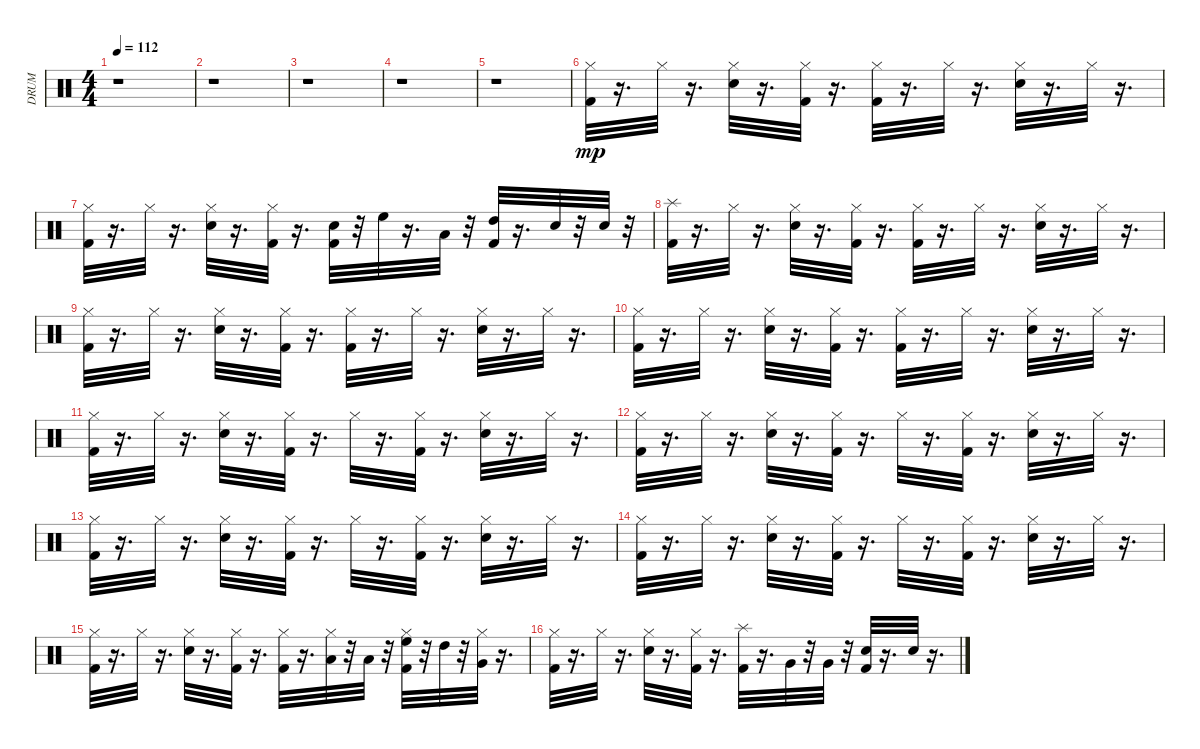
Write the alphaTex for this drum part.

\track ("DRUM" "DRUM") {instrument percussion}
\staff {score}
\articulation defaults
\ts (4 4)
\tempo 112
\clef neutral
\ks c
r.1{dy mp} |
r.1 |
r.1 |
r.1 |
r.1 |
("Kick (hit) 2" "Hi-Hat (closed)").32 r.16{d} "Hi-Hat (closed)".32 r.16{d} ("Hi-Hat (closed)" "Snare (hit) 2").32 r.16{d} ("Kick (hit) 2" "Hi-Hat (closed)").32 r.16{d} ("Kick (hit) 2" "Hi-Hat (closed)").32 r.16{d} "Hi-Hat (closed)".32 r.16{d} ("Hi-Hat (closed)" "Snare (hit) 2").32 r.16{d} "Hi-Hat (closed)".32 r.16{d} |
("Kick (hit) 2" "Hi-Hat (closed)").32 r.16{d} "Hi-Hat (closed)".32 r.16{d} ("Hi-Hat (closed)" "Snare (hit) 2").32 r.16{d} ("Kick (hit) 2" "Hi-Hat (closed)").32 r.16{d} ("Kick (hit) 2" "Snare (hit) 2").32 r.32 "High Floor Tom (hit)".32 r.16{d} "Low Floor Tom (hit)".32 r.32 ("Kick (hit) 2" "High Tom (hit)").32 r.16{d} "Snare (hit) 2".32 r.32 "Snare (hit) 2".32 r.32 |
("Kick (hit) 2" "Splash (hit)").32 r.16{d} "Hi-Hat (closed)".32 r.16{d} ("Hi-Hat (closed)" "Snare (hit) 2").32 r.16{d} ("Kick (hit) 2" "Hi-Hat (closed)").32 r.16{d} ("Kick (hit) 2" "Hi-Hat (closed)").32 r.16{d} "Hi-Hat (closed)".32 r.16{d} ("Hi-Hat (closed)" "Snare (hit) 2").32 r.16{d} "Hi-Hat (closed)".32 r.16{d} |
("Kick (hit) 2" "Hi-Hat (closed)").32 r.16{d} "Hi-Hat (closed)".32 r.16{d} ("Hi-Hat (closed)" "Snare (hit) 2").32 r.16{d} ("Kick (hit) 2" "Hi-Hat (closed)").32 r.16{d} ("Kick (hit) 2" "Hi-Hat (closed)").32 r.16{d} "Hi-Hat (closed)".32 r.16{d} ("Hi-Hat (closed)" "Snare (hit) 2").32 r.16{d} "Hi-Hat (closed)".32 r.16{d} |
("Kick (hit) 2" "Hi-Hat (closed)").32 r.16{d} "Hi-Hat (closed)".32 r.16{d} ("Hi-Hat (closed)" "Snare (hit) 2").32 r.16{d} ("Kick (hit) 2" "Hi-Hat (closed)").32 r.16{d} ("Kick (hit) 2" "Hi-Hat (closed)").32 r.16{d} "Hi-Hat (closed)".32 r.16{d} ("Hi-Hat (closed)" "Snare (hit) 2").32 r.16{d} "Hi-Hat (closed)".32 r.16{d} |
("Kick (hit) 2" "Hi-Hat (closed)").32 r.16{d} "Hi-Hat (closed)".32 r.16{d} ("Hi-Hat (closed)" "Snare (hit) 2").32 r.16{d} ("Kick (hit) 2" "Hi-Hat (closed)").32 r.16{d} "Hi-Hat (closed)".32 r.16{d} ("Kick (hit) 2" "Hi-Hat (closed)").32 r.16{d} ("Hi-Hat (closed)" "Snare (hit) 2").32 r.16{d} "Hi-Hat (closed)".32 r.16{d} |
("Kick (hit) 2" "Hi-Hat (closed)").32 r.16{d} "Hi-Hat (closed)".32 r.16{d} ("Hi-Hat (closed)" "Snare (hit) 2").32 r.16{d} ("Kick (hit) 2" "Hi-Hat (closed)").32 r.16{d} "Hi-Hat (closed)".32 r.16{d} ("Kick (hit) 2" "Hi-Hat (closed)").32 r.16{d} ("Hi-Hat (closed)" "Snare (hit) 2").32 r.16{d} "Hi-Hat (closed)".32 r.16{d} |
("Kick (hit) 2" "Hi-Hat (closed)").32 r.16{d} "Hi-Hat (closed)".32 r.16{d} ("Hi-Hat (closed)" "Snare (hit) 2").32 r.16{d} ("Kick (hit) 2" "Hi-Hat (closed)").32 r.16{d} "Hi-Hat (closed)".32 r.16{d} ("Kick (hit) 2" "Hi-Hat (closed)").32 r.16{d} ("Hi-Hat (closed)" "Snare (hit) 2").32 r.16{d} "Hi-Hat (closed)".32 r.16{d} |
("Kick (hit) 2" "Hi-Hat (closed)").32 r.16{d} "Hi-Hat (closed)".32 r.16{d} ("Hi-Hat (closed)" "Snare (hit) 2").32 r.16{d} ("Kick (hit) 2" "Hi-Hat (closed)").32 r.16{d} "Hi-Hat (closed)".32 r.16{d} ("Kick (hit) 2" "Hi-Hat (closed)").32 r.16{d} ("Hi-Hat (closed)" "Snare (hit) 2").32 r.16{d} "Hi-Hat (closed)".32 r.16{d} |
("Kick (hit) 2" "Hi-Hat (closed)").32 r.16{d} "Hi-Hat (closed)".32 r.16{d} ("Hi-Hat (closed)" "Snare (hit) 2").32 r.16{d} ("Kick (hit) 2" "Hi-Hat (closed)").32 r.16{d} ("Kick (hit) 2" "Hi-Hat (closed)").32 r.16{d} ("Hi-Hat (closed)" "Low Floor Tom (hit)").32 r.32 "Low Floor Tom (hit)".32 r.32 ("Kick (hit) 2" "Hi-Hat (closed)" "High Floor Tom (hit)").32 r.32 "High Tom (hit)".32 r.32 ("Hi-Hat (closed)" "Very Low Tom (hit)").32 r.16{d} |
("Kick (hit) 2" "Hi-Hat (closed)").32 r.16{d} "Hi-Hat (closed)".32 r.16{d} ("Hi-Hat (closed)" "Electric Snare (hit)").32 r.16{d} ("Kick (hit) 2" "Hi-Hat (closed)").32 r.16{d} ("Kick (hit) 2" "Splash (hit)").32 r.16{d} "Very Low Tom (hit)".32 r.32 "Very Low Tom (hit)".32 r.32 ("Kick (hit) 2" "Electric Snare (hit)").32 r.16{d} "Snare (hit) 2".32 r.16{d}
